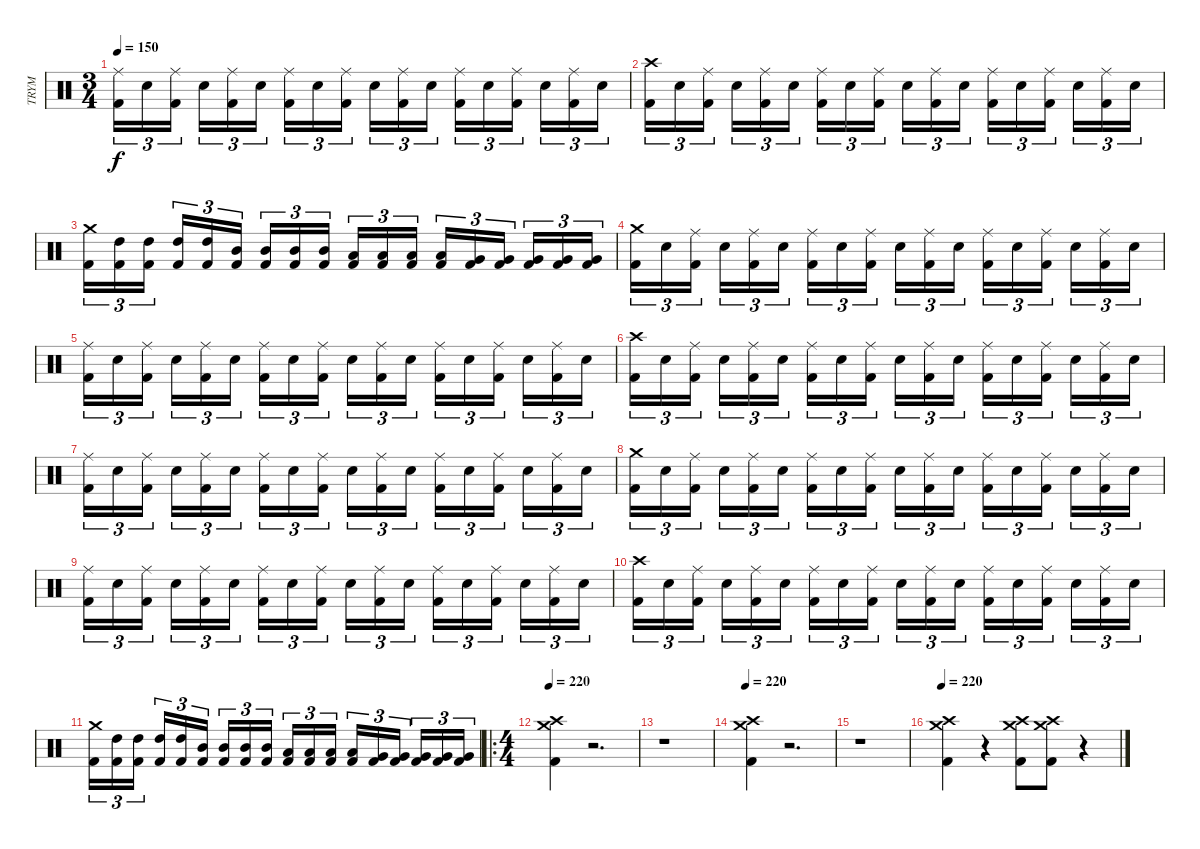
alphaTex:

\track ("TRYM" "TRYM") {instrument percussion}
\staff {score}
\articulation defaults
\ts (3 4)
\tempo 150
\clef neutral
\ks c
("Kick (hit) 2" "Ride (middle)").16{tu (3 2) dy f} "Electric Snare (hit)".16{tu (3 2)} ("Kick (hit) 2" "Ride (middle)").16{tu (3 2)} "Electric Snare (hit)".16{tu (3 2)} ("Kick (hit) 2" "Ride (middle)").16{tu (3 2)} "Electric Snare (hit)".16{tu (3 2)} ("Kick (hit) 2" "Ride (middle)").16{tu (3 2)} "Electric Snare (hit)".16{tu (3 2)} ("Kick (hit) 2" "Ride (middle)").16{tu (3 2)} "Electric Snare (hit)".16{tu (3 2)} ("Kick (hit) 2" "Ride (middle)").16{tu (3 2)} "Electric Snare (hit)".16{tu (3 2)} ("Kick (hit) 2" "Ride (middle)").16{tu (3 2)} "Electric Snare (hit)".16{tu (3 2)} ("Kick (hit) 2" "Ride (middle)").16{tu (3 2)} "Electric Snare (hit)".16{tu (3 2)} ("Kick (hit) 2" "Ride (middle)").16{tu (3 2)} "Electric Snare (hit)".16{tu (3 2)} |
("Kick (hit) 2" "Crash high (hit)").16{tu (3 2)} "Electric Snare (hit)".16{tu (3 2)} ("Kick (hit) 2" "Ride (middle)").16{tu (3 2)} "Electric Snare (hit)".16{tu (3 2)} ("Kick (hit) 2" "Ride (middle)").16{tu (3 2)} "Electric Snare (hit)".16{tu (3 2)} ("Kick (hit) 2" "Ride (middle)").16{tu (3 2)} "Electric Snare (hit)".16{tu (3 2)} ("Kick (hit) 2" "Ride (middle)").16{tu (3 2)} "Electric Snare (hit)".16{tu (3 2)} ("Kick (hit) 2" "Ride (middle)").16{tu (3 2)} "Electric Snare (hit)".16{tu (3 2)} ("Kick (hit) 2" "Ride (middle)").16{tu (3 2)} "Electric Snare (hit)".16{tu (3 2)} ("Kick (hit) 2" "Ride (middle)").16{tu (3 2)} "Electric Snare (hit)".16{tu (3 2)} ("Kick (hit) 2" "Ride (middle)").16{tu (3 2)} "Electric Snare (hit)".16{tu (3 2)} |
("Kick (hit) 2" "Crash medium (hit)").16{tu (3 2)} ("Kick (hit) 2" "High Tom (hit)").16{tu (3 2)} ("Kick (hit) 2" "High Tom (hit)").16{tu (3 2)} ("Kick (hit) 2" "High Tom (hit)").16{tu (3 2)} ("Kick (hit) 2" "High Tom (hit)").16{tu (3 2)} ("Kick (hit) 2" "Mid Tom (hit)").16{tu (3 2)} ("Kick (hit) 2" "Mid Tom (hit)").16{tu (3 2)} ("Kick (hit) 2" "Mid Tom (hit)").16{tu (3 2)} ("Kick (hit) 2" "Mid Tom (hit)").16{tu (3 2)} ("Kick (hit) 2" "Low Tom (hit)").16{tu (3 2)} ("Kick (hit) 2" "Low Tom (hit)").16{tu (3 2)} ("Kick (hit) 2" "Low Tom (hit)").16{tu (3 2)} ("Kick (hit) 2" "Low Tom (hit)").16{tu (3 2)} ("Kick (hit) 2" "Very Low Tom (hit)").16{tu (3 2)} ("Kick (hit) 2" "Very Low Tom (hit)").16{tu (3 2)} ("Kick (hit) 2" "Very Low Tom (hit)").16{tu (3 2)} ("Kick (hit) 2" "Very Low Tom (hit)").16{tu (3 2)} ("Kick (hit) 2" "Very Low Tom (hit)").16{tu (3 2)} |
("Kick (hit) 2" "Crash medium (hit)").16{tu (3 2)} "Electric Snare (hit)".16{tu (3 2)} ("Kick (hit) 2" "Ride (middle)").16{tu (3 2)} "Electric Snare (hit)".16{tu (3 2)} ("Kick (hit) 2" "Ride (middle)").16{tu (3 2)} "Electric Snare (hit)".16{tu (3 2)} ("Kick (hit) 2" "Ride (middle)").16{tu (3 2)} "Electric Snare (hit)".16{tu (3 2)} ("Kick (hit) 2" "Ride (middle)").16{tu (3 2)} "Electric Snare (hit)".16{tu (3 2)} ("Kick (hit) 2" "Ride (middle)").16{tu (3 2)} "Electric Snare (hit)".16{tu (3 2)} ("Kick (hit) 2" "Ride (middle)").16{tu (3 2)} "Electric Snare (hit)".16{tu (3 2)} ("Kick (hit) 2" "Ride (middle)").16{tu (3 2)} "Electric Snare (hit)".16{tu (3 2)} ("Kick (hit) 2" "Ride (middle)").16{tu (3 2)} "Electric Snare (hit)".16{tu (3 2)} |
("Kick (hit) 2" "Ride (middle)").16{tu (3 2)} "Electric Snare (hit)".16{tu (3 2)} ("Kick (hit) 2" "Ride (middle)").16{tu (3 2)} "Electric Snare (hit)".16{tu (3 2)} ("Kick (hit) 2" "Ride (middle)").16{tu (3 2)} "Electric Snare (hit)".16{tu (3 2)} ("Kick (hit) 2" "Ride (middle)").16{tu (3 2)} "Electric Snare (hit)".16{tu (3 2)} ("Kick (hit) 2" "Ride (middle)").16{tu (3 2)} "Electric Snare (hit)".16{tu (3 2)} ("Kick (hit) 2" "Ride (middle)").16{tu (3 2)} "Electric Snare (hit)".16{tu (3 2)} ("Kick (hit) 2" "Ride (middle)").16{tu (3 2)} "Electric Snare (hit)".16{tu (3 2)} ("Kick (hit) 2" "Ride (middle)").16{tu (3 2)} "Electric Snare (hit)".16{tu (3 2)} ("Kick (hit) 2" "Ride (middle)").16{tu (3 2)} "Electric Snare (hit)".16{tu (3 2)} |
("Kick (hit) 2" "Crash high (hit)").16{tu (3 2)} "Electric Snare (hit)".16{tu (3 2)} ("Kick (hit) 2" "Ride (middle)").16{tu (3 2)} "Electric Snare (hit)".16{tu (3 2)} ("Kick (hit) 2" "Ride (middle)").16{tu (3 2)} "Electric Snare (hit)".16{tu (3 2)} ("Kick (hit) 2" "Ride (middle)").16{tu (3 2)} "Electric Snare (hit)".16{tu (3 2)} ("Kick (hit) 2" "Ride (middle)").16{tu (3 2)} "Electric Snare (hit)".16{tu (3 2)} ("Kick (hit) 2" "Ride (middle)").16{tu (3 2)} "Electric Snare (hit)".16{tu (3 2)} ("Kick (hit) 2" "Ride (middle)").16{tu (3 2)} "Electric Snare (hit)".16{tu (3 2)} ("Kick (hit) 2" "Ride (middle)").16{tu (3 2)} "Electric Snare (hit)".16{tu (3 2)} ("Kick (hit) 2" "Ride (middle)").16{tu (3 2)} "Electric Snare (hit)".16{tu (3 2)} |
("Kick (hit) 2" "Ride (middle)").16{tu (3 2)} "Electric Snare (hit)".16{tu (3 2)} ("Kick (hit) 2" "Ride (middle)").16{tu (3 2)} "Electric Snare (hit)".16{tu (3 2)} ("Kick (hit) 2" "Ride (middle)").16{tu (3 2)} "Electric Snare (hit)".16{tu (3 2)} ("Kick (hit) 2" "Ride (middle)").16{tu (3 2)} "Electric Snare (hit)".16{tu (3 2)} ("Kick (hit) 2" "Ride (middle)").16{tu (3 2)} "Electric Snare (hit)".16{tu (3 2)} ("Kick (hit) 2" "Ride (middle)").16{tu (3 2)} "Electric Snare (hit)".16{tu (3 2)} ("Kick (hit) 2" "Ride (middle)").16{tu (3 2)} "Electric Snare (hit)".16{tu (3 2)} ("Kick (hit) 2" "Ride (middle)").16{tu (3 2)} "Electric Snare (hit)".16{tu (3 2)} ("Kick (hit) 2" "Ride (middle)").16{tu (3 2)} "Electric Snare (hit)".16{tu (3 2)} |
("Kick (hit) 2" "Crash medium (hit)").16{tu (3 2)} "Electric Snare (hit)".16{tu (3 2)} ("Kick (hit) 2" "Ride (middle)").16{tu (3 2)} "Electric Snare (hit)".16{tu (3 2)} ("Kick (hit) 2" "Ride (middle)").16{tu (3 2)} "Electric Snare (hit)".16{tu (3 2)} ("Kick (hit) 2" "Ride (middle)").16{tu (3 2)} "Electric Snare (hit)".16{tu (3 2)} ("Kick (hit) 2" "Ride (middle)").16{tu (3 2)} "Electric Snare (hit)".16{tu (3 2)} ("Kick (hit) 2" "Ride (middle)").16{tu (3 2)} "Electric Snare (hit)".16{tu (3 2)} ("Kick (hit) 2" "Ride (middle)").16{tu (3 2)} "Electric Snare (hit)".16{tu (3 2)} ("Kick (hit) 2" "Ride (middle)").16{tu (3 2)} "Electric Snare (hit)".16{tu (3 2)} ("Kick (hit) 2" "Ride (middle)").16{tu (3 2)} "Electric Snare (hit)".16{tu (3 2)} |
("Kick (hit) 2" "Ride (middle)").16{tu (3 2)} "Electric Snare (hit)".16{tu (3 2)} ("Kick (hit) 2" "Ride (middle)").16{tu (3 2)} "Electric Snare (hit)".16{tu (3 2)} ("Kick (hit) 2" "Ride (middle)").16{tu (3 2)} "Electric Snare (hit)".16{tu (3 2)} ("Kick (hit) 2" "Ride (middle)").16{tu (3 2)} "Electric Snare (hit)".16{tu (3 2)} ("Kick (hit) 2" "Ride (middle)").16{tu (3 2)} "Electric Snare (hit)".16{tu (3 2)} ("Kick (hit) 2" "Ride (middle)").16{tu (3 2)} "Electric Snare (hit)".16{tu (3 2)} ("Kick (hit) 2" "Ride (middle)").16{tu (3 2)} "Electric Snare (hit)".16{tu (3 2)} ("Kick (hit) 2" "Ride (middle)").16{tu (3 2)} "Electric Snare (hit)".16{tu (3 2)} ("Kick (hit) 2" "Ride (middle)").16{tu (3 2)} "Electric Snare (hit)".16{tu (3 2)} |
("Kick (hit) 2" "Crash high (hit)").16{tu (3 2)} "Electric Snare (hit)".16{tu (3 2)} ("Kick (hit) 2" "Ride (middle)").16{tu (3 2)} "Electric Snare (hit)".16{tu (3 2)} ("Kick (hit) 2" "Ride (middle)").16{tu (3 2)} "Electric Snare (hit)".16{tu (3 2)} ("Kick (hit) 2" "Ride (middle)").16{tu (3 2)} "Electric Snare (hit)".16{tu (3 2)} ("Kick (hit) 2" "Ride (middle)").16{tu (3 2)} "Electric Snare (hit)".16{tu (3 2)} ("Kick (hit) 2" "Ride (middle)").16{tu (3 2)} "Electric Snare (hit)".16{tu (3 2)} ("Kick (hit) 2" "Ride (middle)").16{tu (3 2)} "Electric Snare (hit)".16{tu (3 2)} ("Kick (hit) 2" "Ride (middle)").16{tu (3 2)} "Electric Snare (hit)".16{tu (3 2)} ("Kick (hit) 2" "Ride (middle)").16{tu (3 2)} "Electric Snare (hit)".16{tu (3 2)} |
("Kick (hit) 2" "Crash medium (hit)").16{tu (3 2)} ("Kick (hit) 2" "High Tom (hit)").16{tu (3 2)} ("Kick (hit) 2" "High Tom (hit)").16{tu (3 2)} ("Kick (hit) 2" "High Tom (hit)").16{tu (3 2)} ("Kick (hit) 2" "High Tom (hit)").16{tu (3 2)} ("Kick (hit) 2" "Mid Tom (hit)").16{tu (3 2)} ("Kick (hit) 2" "Mid Tom (hit)").16{tu (3 2)} ("Kick (hit) 2" "Mid Tom (hit)").16{tu (3 2)} ("Kick (hit) 2" "Mid Tom (hit)").16{tu (3 2)} ("Kick (hit) 2" "Low Tom (hit)").16{tu (3 2)} ("Kick (hit) 2" "Low Tom (hit)").16{tu (3 2)} ("Kick (hit) 2" "Low Tom (hit)").16{tu (3 2)} ("Kick (hit) 2" "Low Tom (hit)").16{tu (3 2)} ("Kick (hit) 2" "Very Low Tom (hit)").16{tu (3 2)} ("Kick (hit) 2" "Very Low Tom (hit)").16{tu (3 2)} ("Kick (hit) 2" "Very Low Tom (hit)").16{tu (3 2)} ("Kick (hit) 2" "Very Low Tom (hit)").16{tu (3 2)} ("Kick (hit) 2" "Very Low Tom (hit)").16{tu (3 2)} |
\ro
\ts (4 4)
\tempo 220
("Kick (hit) 2" "Crash medium (hit)" "Crash high (hit)").4 r.2{d} |
r.1 |
\tempo 220
("Kick (hit) 2" "Crash medium (hit)" "Crash high (hit)").4 r.2{d} |
r.1 |
\tempo 220
("Kick (hit) 2" "Crash medium (hit)" "Crash high (hit)").4 r.4 ("Kick (hit) 2" "Crash medium (hit)" "Crash high (hit)").8 ("Kick (hit) 2" "Crash medium (hit)" "Crash high (hit)").8 r.4
